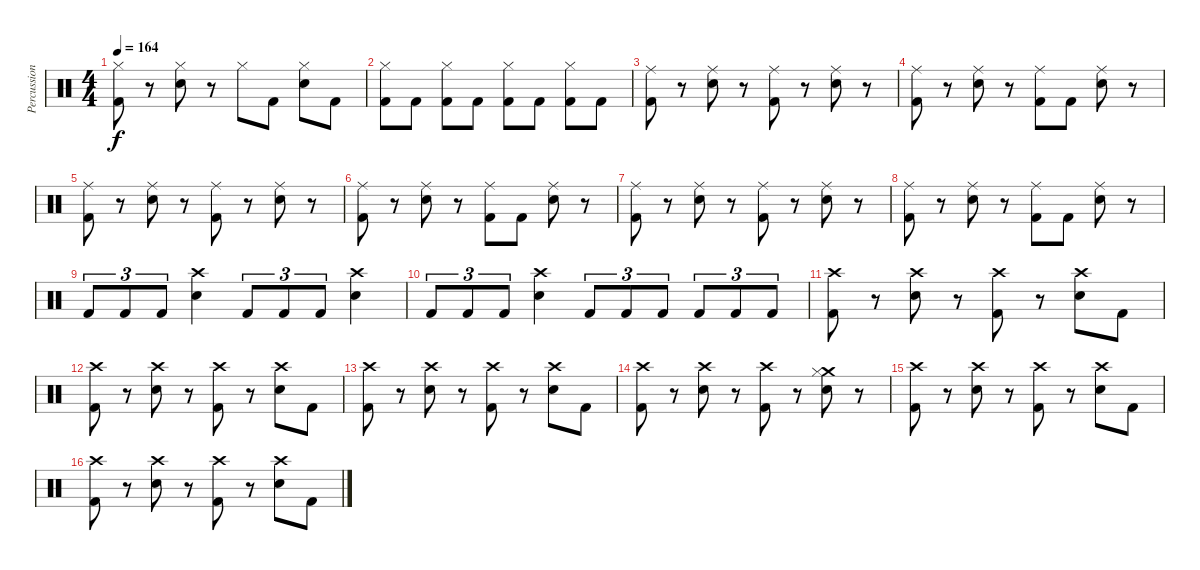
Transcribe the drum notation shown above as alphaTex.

\track ("Percussion" "Percussion") {instrument percussion}
\staff {score}
\articulation defaults
\ts (4 4)
\tempo 164
\clef neutral
\ks c
("Hi-Hat (closed)" "Kick (hit) 2").8{dy f} r.8 ("Hi-Hat (closed)" "Electric Snare (hit)").8 r.8 "Hi-Hat (closed)".8 "Kick (hit) 2".8 ("Hi-Hat (closed)" "Electric Snare (hit)").8 "Kick (hit) 2".8 |
("Hi-Hat (closed)" "Kick (hit) 2").8 "Kick (hit) 2".8 ("Hi-Hat (closed)" "Kick (hit) 2").8 "Kick (hit) 2".8 ("Hi-Hat (closed)" "Kick (hit) 2").8 "Kick (hit) 2".8 ("Hi-Hat (closed)" "Kick (hit) 2").8 "Kick (hit) 2".8 |
("Ride (middle)" "Kick (hit) 2").8 r.8 ("Ride (middle)" "Electric Snare (hit)").8 r.8 ("Ride (middle)" "Kick (hit) 2").8 r.8 ("Ride (middle)" "Electric Snare (hit)").8 r.8 |
("Ride (middle)" "Kick (hit) 2").8 r.8 ("Ride (middle)" "Electric Snare (hit)").8 r.8 ("Ride (middle)" "Kick (hit) 2").8 "Kick (hit) 2".8 ("Ride (middle)" "Electric Snare (hit)").8 r.8 |
("Ride (middle)" "Kick (hit) 2").8 r.8 ("Ride (middle)" "Electric Snare (hit)").8 r.8 ("Ride (middle)" "Kick (hit) 2").8 r.8 ("Ride (middle)" "Electric Snare (hit)").8 r.8 |
("Ride (middle)" "Kick (hit) 2").8 r.8 ("Ride (middle)" "Electric Snare (hit)").8 r.8 ("Ride (middle)" "Kick (hit) 2").8 "Kick (hit) 2".8 ("Ride (middle)" "Electric Snare (hit)").8 r.8 |
("Ride (middle)" "Kick (hit) 2").8 r.8 ("Ride (middle)" "Electric Snare (hit)").8 r.8 ("Ride (middle)" "Kick (hit) 2").8 r.8 ("Ride (middle)" "Electric Snare (hit)").8 r.8 |
("Ride (middle)" "Kick (hit) 2").8 r.8 ("Ride (middle)" "Electric Snare (hit)").8 r.8 ("Ride (middle)" "Kick (hit) 2").8 "Kick (hit) 2".8 ("Ride (middle)" "Electric Snare (hit)").8 r.8 |
"Kick (hit) 2".8{tu (3 2)} "Kick (hit) 2".8{tu (3 2)} "Kick (hit) 2".8{tu (3 2)} ("Crash high (hit)" "Electric Snare (hit)").4 "Kick (hit) 2".8{tu (3 2)} "Kick (hit) 2".8{tu (3 2)} "Kick (hit) 2".8{tu (3 2)} ("Crash high (hit)" "Electric Snare (hit)").4 |
"Kick (hit) 2".8{tu (3 2)} "Kick (hit) 2".8{tu (3 2)} "Kick (hit) 2".8{tu (3 2)} ("Crash high (hit)" "Electric Snare (hit)").4 "Kick (hit) 2".8{tu (3 2)} "Kick (hit) 2".8{tu (3 2)} "Kick (hit) 2".8{tu (3 2)} "Kick (hit) 2".8{tu (3 2)} "Kick (hit) 2".8{tu (3 2)} "Kick (hit) 2".8{tu (3 2)} |
("Crash high (hit)" "Kick (hit) 2").8 r.8 ("Crash high (hit)" "Electric Snare (hit)").8 r.8 ("Crash high (hit)" "Kick (hit) 2").8 r.8 ("Crash high (hit)" "Electric Snare (hit)").8 "Kick (hit) 2".8 |
("Crash high (hit)" "Kick (hit) 2").8 r.8 ("Crash high (hit)" "Electric Snare (hit)").8 r.8 ("Crash high (hit)" "Kick (hit) 2").8 r.8 ("Crash high (hit)" "Electric Snare (hit)").8 "Kick (hit) 2".8 |
("Crash high (hit)" "Kick (hit) 2").8 r.8 ("Crash high (hit)" "Electric Snare (hit)").8 r.8 ("Crash high (hit)" "Kick (hit) 2").8 r.8 ("Crash high (hit)" "Electric Snare (hit)").8 "Kick (hit) 2".8 |
("Crash high (hit)" "Kick (hit) 2").8 r.8 ("Crash high (hit)" "Electric Snare (hit)").8 r.8 ("Crash high (hit)" "Kick (hit) 2").8 r.8 ("Crash medium (hit)" "Hi-Hat (closed)" "Electric Snare (hit)").8 r.8 |
("Crash high (hit)" "Kick (hit) 2").8 r.8 ("Crash high (hit)" "Electric Snare (hit)").8 r.8 ("Crash high (hit)" "Kick (hit) 2").8 r.8 ("Crash high (hit)" "Electric Snare (hit)").8 "Kick (hit) 2".8 |
("Crash high (hit)" "Kick (hit) 2").8 r.8 ("Crash high (hit)" "Electric Snare (hit)").8 r.8 ("Crash high (hit)" "Kick (hit) 2").8 r.8 ("Crash high (hit)" "Electric Snare (hit)").8 "Kick (hit) 2".8
